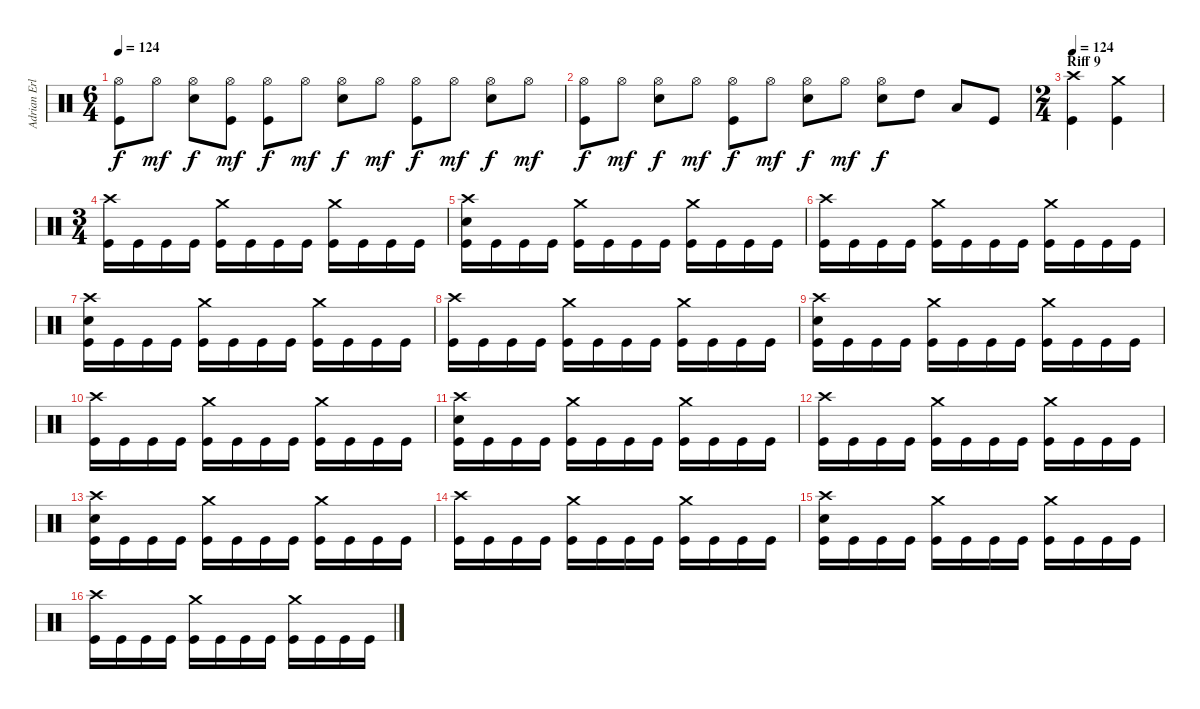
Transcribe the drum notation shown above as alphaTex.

\track ("Adrian Erlandsson (Norseman of the Apoca" "Adrian Erl") {instrument percussion}
\staff {score}
\articulation defaults
\ts (6 4)
\tempo 124
\clef neutral
\ks c
("Hi-Hat (open)" "Kick (hit)").8{dy f} "Hi-Hat (open)".8{dy mf} ("Hi-Hat (open)" "Electric Snare (hit)").8{dy f} ("Hi-Hat (open)" "Kick (hit)").8{dy mf} ("Hi-Hat (open)" "Kick (hit)").8{dy f} "Hi-Hat (open)".8{dy mf} ("Hi-Hat (open)" "Electric Snare (hit)").8{dy f} "Hi-Hat (open)".8{dy mf} ("Hi-Hat (open)" "Kick (hit)").8{dy f} "Hi-Hat (open)".8{dy mf} ("Hi-Hat (open)" "Electric Snare (hit)").8{dy f} "Hi-Hat (open)".8{dy mf} |
("Hi-Hat (open)" "Kick (hit)").8{dy f} "Hi-Hat (open)".8{dy mf} ("Hi-Hat (open)" "Electric Snare (hit)").8{dy f} "Hi-Hat (open)".8{dy mf} ("Hi-Hat (open)" "Kick (hit)").8{dy f} "Hi-Hat (open)".8{dy mf} ("Hi-Hat (open)" "Electric Snare (hit)").8{dy f} "Hi-Hat (open)".8{dy mf} ("Hi-Hat (open)" "Electric Snare (hit)").8{dy f} "High Tom (hit)".8 "Low Tom (hit)".8 "Kick (hit)".8 |
\ts (2 4)
\section ("" "Riff 9")
\tempo 124
("Crash high (hit)" "Kick (hit)").4 ("Crash medium (hit)" "Kick (hit)").4 |
\ts (3 4)
("Crash high (hit)" "Kick (hit)").16 "Kick (hit)".16 "Kick (hit)".16 "Kick (hit)".16 ("Crash medium (hit)" "Kick (hit)").16 "Kick (hit)".16 "Kick (hit)".16 "Kick (hit)".16 ("Crash medium (hit)" "Kick (hit)").16 "Kick (hit)".16 "Kick (hit)".16 "Kick (hit)".16 |
("Crash high (hit)" "Electric Snare (hit)" "Kick (hit)").16 "Kick (hit)".16 "Kick (hit)".16 "Kick (hit)".16 ("Crash medium (hit)" "Kick (hit)").16 "Kick (hit)".16 "Kick (hit)".16 "Kick (hit)".16 ("Crash medium (hit)" "Kick (hit)").16 "Kick (hit)".16 "Kick (hit)".16 "Kick (hit)".16 |
("Crash high (hit)" "Kick (hit)").16 "Kick (hit)".16 "Kick (hit)".16 "Kick (hit)".16 ("Crash medium (hit)" "Kick (hit)").16 "Kick (hit)".16 "Kick (hit)".16 "Kick (hit)".16 ("Crash medium (hit)" "Kick (hit)").16 "Kick (hit)".16 "Kick (hit)".16 "Kick (hit)".16 |
("Crash high (hit)" "Electric Snare (hit)" "Kick (hit)").16 "Kick (hit)".16 "Kick (hit)".16 "Kick (hit)".16 ("Crash medium (hit)" "Kick (hit)").16 "Kick (hit)".16 "Kick (hit)".16 "Kick (hit)".16 ("Crash medium (hit)" "Kick (hit)").16 "Kick (hit)".16 "Kick (hit)".16 "Kick (hit)".16 |
("Crash high (hit)" "Kick (hit)").16 "Kick (hit)".16 "Kick (hit)".16 "Kick (hit)".16 ("Crash medium (hit)" "Kick (hit)").16 "Kick (hit)".16 "Kick (hit)".16 "Kick (hit)".16 ("Crash medium (hit)" "Kick (hit)").16 "Kick (hit)".16 "Kick (hit)".16 "Kick (hit)".16 |
("Crash high (hit)" "Electric Snare (hit)" "Kick (hit)").16 "Kick (hit)".16 "Kick (hit)".16 "Kick (hit)".16 ("Crash medium (hit)" "Kick (hit)").16 "Kick (hit)".16 "Kick (hit)".16 "Kick (hit)".16 ("Crash medium (hit)" "Kick (hit)").16 "Kick (hit)".16 "Kick (hit)".16 "Kick (hit)".16 |
("Crash high (hit)" "Kick (hit)").16 "Kick (hit)".16 "Kick (hit)".16 "Kick (hit)".16 ("Crash medium (hit)" "Kick (hit)").16 "Kick (hit)".16 "Kick (hit)".16 "Kick (hit)".16 ("Crash medium (hit)" "Kick (hit)").16 "Kick (hit)".16 "Kick (hit)".16 "Kick (hit)".16 |
("Crash high (hit)" "Electric Snare (hit)" "Kick (hit)").16 "Kick (hit)".16 "Kick (hit)".16 "Kick (hit)".16 ("Crash medium (hit)" "Kick (hit)").16 "Kick (hit)".16 "Kick (hit)".16 "Kick (hit)".16 ("Crash medium (hit)" "Kick (hit)").16 "Kick (hit)".16 "Kick (hit)".16 "Kick (hit)".16 |
("Crash high (hit)" "Kick (hit)").16 "Kick (hit)".16 "Kick (hit)".16 "Kick (hit)".16 ("Crash medium (hit)" "Kick (hit)").16 "Kick (hit)".16 "Kick (hit)".16 "Kick (hit)".16 ("Crash medium (hit)" "Kick (hit)").16 "Kick (hit)".16 "Kick (hit)".16 "Kick (hit)".16 |
("Crash high (hit)" "Electric Snare (hit)" "Kick (hit)").16 "Kick (hit)".16 "Kick (hit)".16 "Kick (hit)".16 ("Crash medium (hit)" "Kick (hit)").16 "Kick (hit)".16 "Kick (hit)".16 "Kick (hit)".16 ("Crash medium (hit)" "Kick (hit)").16 "Kick (hit)".16 "Kick (hit)".16 "Kick (hit)".16 |
("Crash high (hit)" "Kick (hit)").16 "Kick (hit)".16 "Kick (hit)".16 "Kick (hit)".16 ("Crash medium (hit)" "Kick (hit)").16 "Kick (hit)".16 "Kick (hit)".16 "Kick (hit)".16 ("Crash medium (hit)" "Kick (hit)").16 "Kick (hit)".16 "Kick (hit)".16 "Kick (hit)".16 |
("Crash high (hit)" "Electric Snare (hit)" "Kick (hit)").16 "Kick (hit)".16 "Kick (hit)".16 "Kick (hit)".16 ("Crash medium (hit)" "Kick (hit)").16 "Kick (hit)".16 "Kick (hit)".16 "Kick (hit)".16 ("Crash medium (hit)" "Kick (hit)").16 "Kick (hit)".16 "Kick (hit)".16 "Kick (hit)".16 |
("Crash high (hit)" "Kick (hit)").16 "Kick (hit)".16 "Kick (hit)".16 "Kick (hit)".16 ("Crash medium (hit)" "Kick (hit)").16 "Kick (hit)".16 "Kick (hit)".16 "Kick (hit)".16 ("Crash medium (hit)" "Kick (hit)").16 "Kick (hit)".16 "Kick (hit)".16 "Kick (hit)".16
